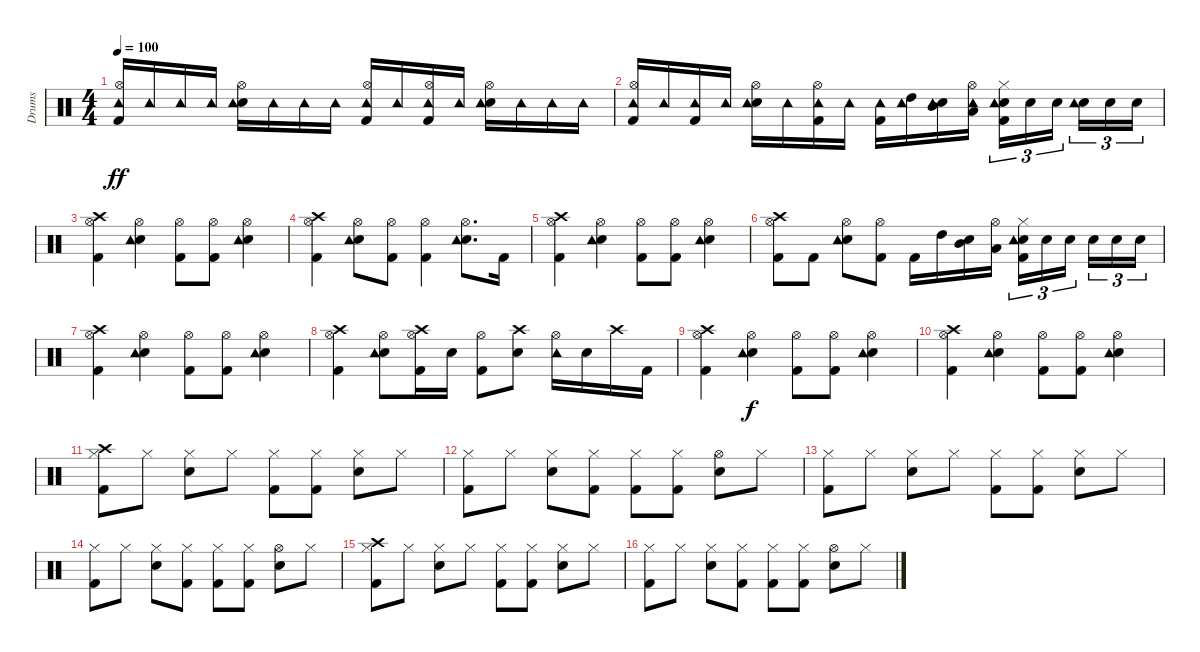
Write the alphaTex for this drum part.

\track ("Drums" "Drums") {instrument percussion}
\staff {score}
\articulation defaults
\ts (4 4)
\tempo 100
\clef neutral
\ks c
("Kick (hit) 2" "Hi-Hat (open)" "Tambourine (hit)").16{dy ff} "Tambourine (hit)".16 "Tambourine (hit)".16 "Tambourine (hit)".16 ("Snare (hit) 2" "Hi-Hat (open)" "Tambourine (hit)").16 "Tambourine (hit)".16 "Tambourine (hit)".16 "Tambourine (hit)".16 ("Kick (hit) 2" "Hi-Hat (open)" "Tambourine (hit)").16 "Tambourine (hit)".16 ("Kick (hit) 2" "Hi-Hat (open)" "Tambourine (hit)").16 "Tambourine (hit)".16 ("Snare (hit) 2" "Hi-Hat (open)" "Tambourine (hit)").16 "Tambourine (hit)".16 "Tambourine (hit)".16 "Tambourine (hit)".16 |
("Kick (hit) 2" "Hi-Hat (open)" "Tambourine (hit)").16 "Tambourine (hit)".16 ("Kick (hit) 2" "Tambourine (hit)").16 "Tambourine (hit)".16 ("Snare (hit) 2" "Hi-Hat (open)" "Tambourine (hit)").16 "Tambourine (hit)".16 ("Kick (hit) 2" "Hi-Hat (open)" "Tambourine (hit)").16 "Tambourine (hit)".16 ("Kick (hit) 2" "Tambourine (hit)").16 ("High Tom (hit)" "Tambourine (hit)").16 ("Snare (hit) 2" "Mid Tom (hit)" "Tambourine (hit)").16 ("Low Tom (hit)" "Hi-Hat (open)" "Tambourine (hit)").16 ("Kick (hit) 2" "Snare (hit) 2" "Hi-Hat (closed)" "Tambourine (hit)").16{tu (3 2)} "Snare (hit) 2".16{tu (3 2)} "Snare (hit) 2".16{tu (3 2) beam splitsecondary} ("Snare (hit) 2" "Tambourine (hit)").16{tu (3 2)} "Snare (hit) 2".16{tu (3 2)} "Snare (hit) 2".16{tu (3 2)} |
("Kick (hit) 2" "Hi-Hat (open)" "Crash high (hit)").4 ("Snare (hit) 2" "Hi-Hat (open)" "Tambourine (hit)").4 ("Kick (hit) 2" "Hi-Hat (open)").8 ("Kick (hit) 2" "Hi-Hat (open)").8 ("Snare (hit) 2" "Hi-Hat (open)" "Tambourine (hit)").4 |
("Kick (hit) 2" "Hi-Hat (open)" "Crash high (hit)").4 ("Snare (hit) 2" "Hi-Hat (open)" "Tambourine (hit)").8 ("Kick (hit) 2" "Hi-Hat (open)").8 ("Kick (hit) 2" "Hi-Hat (open)").4 ("Snare (hit) 2" "Hi-Hat (open)" "Tambourine (hit)").8{d} "Kick (hit) 2".16 |
("Kick (hit) 2" "Hi-Hat (open)" "Crash high (hit)").4 ("Snare (hit) 2" "Hi-Hat (open)" "Tambourine (hit)").4 ("Kick (hit) 2" "Hi-Hat (open)").8 ("Kick (hit) 2" "Hi-Hat (open)").8 ("Snare (hit) 2" "Hi-Hat (open)" "Tambourine (hit)").4 |
("Kick (hit) 2" "Hi-Hat (open)" "Crash high (hit)").8 "Kick (hit) 2".8 ("Snare (hit) 2" "Hi-Hat (open)" "Tambourine (hit)").8 ("Kick (hit) 2" "Hi-Hat (open)").8 "Kick (hit) 2".16 "High Tom (hit)".16 ("Snare (hit) 2" "Mid Tom (hit)").16 ("Low Tom (hit)" "Hi-Hat (open)").16 ("Kick (hit) 2" "Snare (hit) 2" "Hi-Hat (closed)" "Tambourine (hit)").16{tu (3 2)} "Snare (hit) 2".16{tu (3 2)} "Snare (hit) 2".16{tu (3 2) beam splitsecondary} "Snare (hit) 2".16{tu (3 2)} "Snare (hit) 2".16{tu (3 2)} "Snare (hit) 2".16{tu (3 2)} |
("Kick (hit) 2" "Hi-Hat (open)" "Crash high (hit)").4 ("Snare (hit) 2" "Hi-Hat (open)" "Tambourine (hit)").4 ("Kick (hit) 2" "Hi-Hat (open)").8 ("Kick (hit) 2" "Hi-Hat (open)").8 ("Snare (hit) 2" "Hi-Hat (open)" "Tambourine (hit)").4 |
("Kick (hit) 2" "Hi-Hat (open)" "Crash high (hit)").4 ("Snare (hit) 2" "Hi-Hat (open)" "Tambourine (hit)").8 ("Kick (hit) 2" "Hi-Hat (open)" "Crash high (hit)").16 "Snare (hit) 2".16 ("Kick (hit) 2" "Hi-Hat (open)").8 ("Snare (hit) 2" "Crash high (hit)").8 ("Hi-Hat (open)" "Tambourine (hit)").16 "Snare (hit) 2".16 "Crash high (hit)".16 "Kick (hit) 2".16 |
("Kick (hit) 2" "Hi-Hat (open)" "Crash high (hit)").4 ("Snare (hit) 2" "Hi-Hat (open)" "Tambourine (hit)").4{dy f} ("Kick (hit) 2" "Hi-Hat (open)").8 ("Kick (hit) 2" "Hi-Hat (open)").8 ("Snare (hit) 2" "Hi-Hat (open)" "Tambourine (hit)").4 |
("Kick (hit) 2" "Hi-Hat (open)" "Crash high (hit)").4 ("Snare (hit) 2" "Hi-Hat (open)" "Tambourine (hit)").4 ("Kick (hit) 2" "Hi-Hat (open)").8 ("Kick (hit) 2" "Hi-Hat (open)").8 ("Snare (hit) 2" "Hi-Hat (open)" "Tambourine (hit)").4 |
("Kick (hit) 2" "Hi-Hat (closed)" "Crash high (hit)").8 "Hi-Hat (closed)".8 ("Snare (hit) 2" "Hi-Hat (closed)").8 "Hi-Hat (closed)".8 ("Kick (hit) 2" "Hi-Hat (closed)").8 ("Kick (hit) 2" "Hi-Hat (closed)").8 ("Snare (hit) 2" "Hi-Hat (closed)").8 "Hi-Hat (closed)".8 |
("Kick (hit) 2" "Hi-Hat (closed)").8 "Hi-Hat (closed)".8 ("Snare (hit) 2" "Hi-Hat (closed)").8 ("Kick (hit) 2" "Hi-Hat (closed)").8 ("Kick (hit) 2" "Hi-Hat (closed)").8 ("Kick (hit) 2" "Hi-Hat (closed)").8 ("Snare (hit) 2" "Hi-Hat (open)").8 "Hi-Hat (closed)".8 |
("Kick (hit) 2" "Hi-Hat (closed)").8 "Hi-Hat (closed)".8 ("Snare (hit) 2" "Hi-Hat (closed)").8 "Hi-Hat (closed)".8 ("Kick (hit) 2" "Hi-Hat (closed)").8 ("Kick (hit) 2" "Hi-Hat (closed)").8 ("Snare (hit) 2" "Hi-Hat (closed)").8 "Hi-Hat (closed)".8 |
("Kick (hit) 2" "Hi-Hat (closed)").8 "Hi-Hat (closed)".8 ("Snare (hit) 2" "Hi-Hat (closed)").8 ("Kick (hit) 2" "Hi-Hat (closed)").8 ("Kick (hit) 2" "Hi-Hat (closed)").8 ("Kick (hit) 2" "Hi-Hat (closed)").8 ("Snare (hit) 2" "Hi-Hat (open)").8 "Hi-Hat (closed)".8 |
("Kick (hit) 2" "Hi-Hat (closed)" "Crash high (hit)").8 "Hi-Hat (closed)".8 ("Snare (hit) 2" "Hi-Hat (closed)").8 "Hi-Hat (closed)".8 ("Kick (hit) 2" "Hi-Hat (closed)").8 ("Kick (hit) 2" "Hi-Hat (closed)").8 ("Snare (hit) 2" "Hi-Hat (closed)").8 "Hi-Hat (closed)".8 |
("Kick (hit) 2" "Hi-Hat (closed)").8 "Hi-Hat (closed)".8 ("Snare (hit) 2" "Hi-Hat (closed)").8 ("Kick (hit) 2" "Hi-Hat (closed)").8 ("Kick (hit) 2" "Hi-Hat (closed)").8 ("Kick (hit) 2" "Hi-Hat (closed)").8 ("Snare (hit) 2" "Hi-Hat (open)").8 "Hi-Hat (closed)".8
